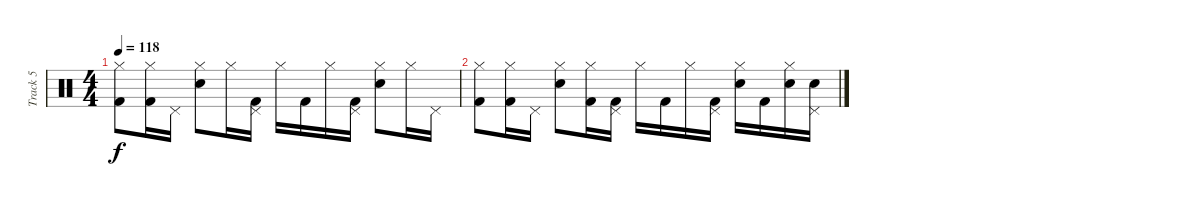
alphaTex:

\track ("Track 5" "Track 5") {instrument percussion}
\staff {score}
\articulation defaults
\ts (4 4)
\tempo 118
\clef neutral
\ks c
("Hi-Hat (closed)" "Kick (hit) 2").8{dy f} ("Hi-Hat (closed)" "Kick (hit) 2").16 "Pedal Hi-Hat (hit)".16 ("Hi-Hat (closed)" "Snare (hit) 2").8 "Hi-Hat (closed)".16 ("Pedal Hi-Hat (hit)" "Kick (hit) 2").16 "Hi-Hat (closed)".16 "Kick (hit) 2".16 "Hi-Hat (closed)".16 ("Pedal Hi-Hat (hit)" "Kick (hit) 2").16 ("Hi-Hat (closed)" "Snare (hit) 2").8 "Hi-Hat (closed)".16 "Pedal Hi-Hat (hit)".16 |
("Hi-Hat (closed)" "Kick (hit) 2").8 ("Hi-Hat (closed)" "Kick (hit) 2").16 "Pedal Hi-Hat (hit)".16 ("Hi-Hat (closed)" "Snare (hit) 2").8 ("Hi-Hat (closed)" "Kick (hit) 2").16 ("Pedal Hi-Hat (hit)" "Kick (hit) 2").16 "Hi-Hat (closed)".16 "Kick (hit) 2".16 "Hi-Hat (closed)".16 ("Pedal Hi-Hat (hit)" "Kick (hit) 2").16 ("Hi-Hat (closed)" "Snare (hit) 2").16 "Kick (hit) 2".16 ("Hi-Hat (closed)" "Snare (hit) 2").16 ("Pedal Hi-Hat (hit)" "Snare (hit) 2").16
